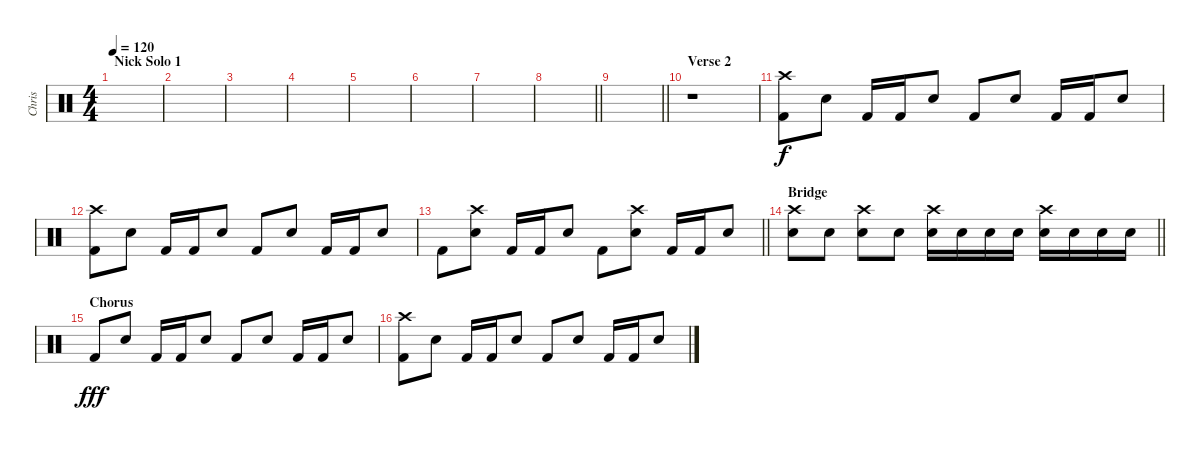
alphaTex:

\track ("Chris" "Chris") {instrument percussion}
\staff {score}
\articulation defaults
\ts (4 4)
\section ("" "Nick Solo 1")
\tempo 120
\clef neutral
\ks c
|
|
|
|
|
|
|
\barLineRight lightlight
|
\barLineRight lightlight
|
\section ("" "Verse 2")
r.1 |
("Kick (hit) 2" "Crash high (hit)").8 "Electric Snare (hit)".8 "Kick (hit) 2".16 "Kick (hit) 2".16 "Electric Snare (hit)".8 "Kick (hit) 2".8 "Electric Snare (hit)".8 "Kick (hit) 2".16 "Kick (hit) 2".16 "Electric Snare (hit)".8 |
("Kick (hit) 2" "Crash high (hit)").8 "Electric Snare (hit)".8 "Kick (hit) 2".16 "Kick (hit) 2".16 "Electric Snare (hit)".8 "Kick (hit) 2".8 "Electric Snare (hit)".8 "Kick (hit) 2".16 "Kick (hit) 2".16 "Electric Snare (hit)".8 |
\barLineRight lightlight "Kick (hit) 2".8
("Electric Snare (hit)" "Crash high (hit)").8 "Kick (hit) 2".16 "Kick (hit) 2".16 "Electric Snare (hit)".8 "Kick (hit) 2".8 ("Electric Snare (hit)" "Crash high (hit)").8 "Kick (hit) 2".16 "Kick (hit) 2".16 "Electric Snare (hit)".8 |
\section ("" "Bridge")
\barLineRight lightlight
("Electric Snare (hit)" "Crash high (hit)").8{dy f} "Electric Snare (hit)".8 ("Electric Snare (hit)" "Crash high (hit)").8 "Electric Snare (hit)".8 ("Electric Snare (hit)" "Crash high (hit)").16 "Electric Snare (hit)".16 "Electric Snare (hit)".16 "Electric Snare (hit)".16 ("Electric Snare (hit)" "Crash high (hit)").16 "Electric Snare (hit)".16 "Electric Snare (hit)".16 "Electric Snare (hit)".16 |
\section ("" "Chorus")
"Kick (hit) 2".8{dy fff} "Electric Snare (hit)".8 "Kick (hit) 2".16 "Kick (hit) 2".16 "Electric Snare (hit)".8 "Kick (hit) 2".8 "Electric Snare (hit)".8 "Kick (hit) 2".16 "Kick (hit) 2".16 "Electric Snare (hit)".8 |
("Kick (hit) 2" "Crash high (hit)").8 "Electric Snare (hit)".8 "Kick (hit) 2".16 "Kick (hit) 2".16 "Electric Snare (hit)".8 "Kick (hit) 2".8 "Electric Snare (hit)".8 "Kick (hit) 2".16 "Kick (hit) 2".16 "Electric Snare (hit)".8
